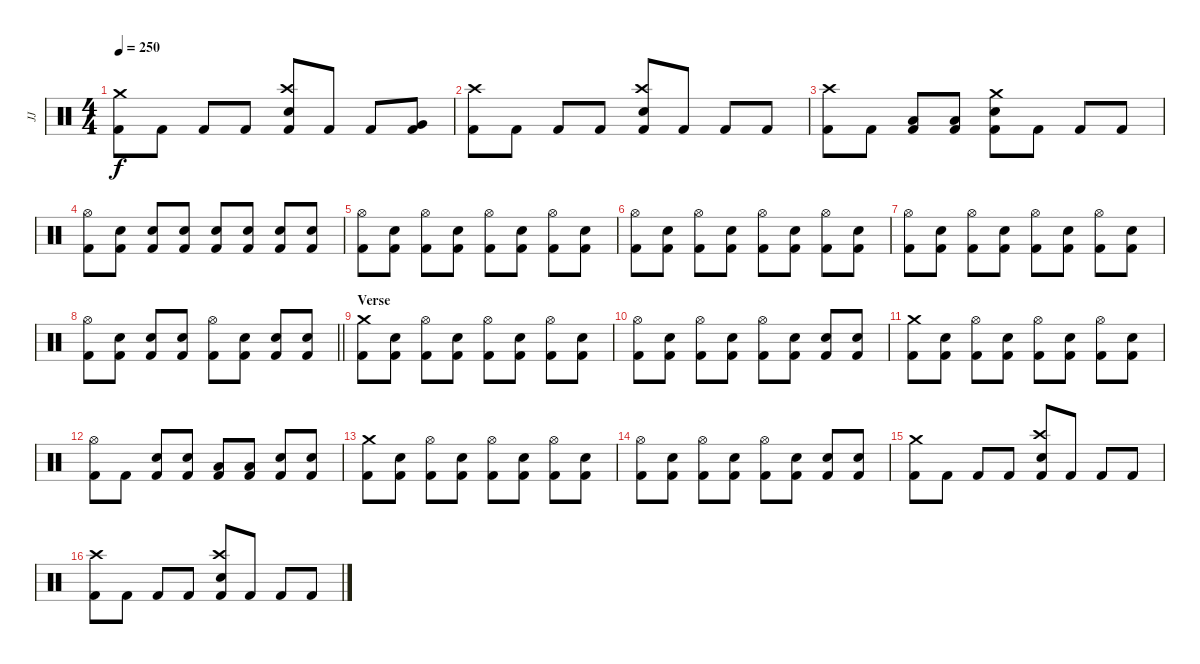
\track ("JJ" "JJ") {instrument percussion}
\staff {score}
\articulation defaults
\ts (4 4)
\tempo 250
\clef neutral
\ks c
("Crash medium (hit)" "Kick (hit) 2").8{dy f} "Kick (hit) 2".8 "Kick (hit) 2".8 "Kick (hit) 2".8 ("Crash high (hit)" "Electric Snare (hit)" "Kick (hit) 2").8 "Kick (hit) 2".8 "Kick (hit) 2".8 ("Very Low Tom (hit)" "Kick (hit) 2").8 |
("Crash high (hit)" "Kick (hit) 2").8 "Kick (hit) 2".8 "Kick (hit) 2".8 "Kick (hit) 2".8 ("Crash high (hit)" "Electric Snare (hit)" "Kick (hit) 2").8 "Kick (hit) 2".8 "Kick (hit) 2".8 "Kick (hit) 2".8 |
("Crash high (hit)" "Kick (hit) 2").8 "Kick (hit) 2".8 ("Low Floor Tom (hit)" "Kick (hit) 2").8 ("Low Floor Tom (hit)" "Kick (hit) 2").8 ("Crash medium (hit)" "Electric Snare (hit)" "Kick (hit) 2").8 "Kick (hit) 2".8 "Kick (hit) 2".8 "Kick (hit) 2".8 |
("Hi-Hat (open)" "Kick (hit) 2").8 ("Electric Snare (hit)" "Kick (hit) 2").8 ("Electric Snare (hit)" "Kick (hit) 2").8 ("Electric Snare (hit)" "Kick (hit) 2").8 ("Electric Snare (hit)" "Kick (hit) 2").8 ("Electric Snare (hit)" "Kick (hit) 2").8 ("Electric Snare (hit)" "Kick (hit) 2").8 ("Electric Snare (hit)" "Kick (hit) 2").8 |
("Hi-Hat (open)" "Kick (hit) 2").8 ("Electric Snare (hit)" "Kick (hit) 2").8 ("Hi-Hat (open)" "Kick (hit) 2").8 ("Electric Snare (hit)" "Kick (hit) 2").8 ("Hi-Hat (open)" "Kick (hit) 2").8 ("Electric Snare (hit)" "Kick (hit) 2").8 ("Hi-Hat (open)" "Kick (hit) 2").8 ("Electric Snare (hit)" "Kick (hit) 2").8 |
("Hi-Hat (open)" "Kick (hit) 2").8 ("Electric Snare (hit)" "Kick (hit) 2").8 ("Hi-Hat (open)" "Kick (hit) 2").8 ("Electric Snare (hit)" "Kick (hit) 2").8 ("Hi-Hat (open)" "Kick (hit) 2").8 ("Electric Snare (hit)" "Kick (hit) 2").8 ("Hi-Hat (open)" "Kick (hit) 2").8 ("Electric Snare (hit)" "Kick (hit) 2").8 |
("Hi-Hat (open)" "Kick (hit) 2").8 ("Electric Snare (hit)" "Kick (hit) 2").8 ("Hi-Hat (open)" "Kick (hit) 2").8 ("Electric Snare (hit)" "Kick (hit) 2").8 ("Hi-Hat (open)" "Kick (hit) 2").8 ("Electric Snare (hit)" "Kick (hit) 2").8 ("Hi-Hat (open)" "Kick (hit) 2").8 ("Electric Snare (hit)" "Kick (hit) 2").8 |
\barLineRight lightlight
("Hi-Hat (open)" "Kick (hit) 2").8 ("Electric Snare (hit)" "Kick (hit) 2").8 ("Electric Snare (hit)" "Kick (hit) 2").8 ("Electric Snare (hit)" "Kick (hit) 2").8 ("Hi-Hat (open)" "Kick (hit) 2").8 ("Electric Snare (hit)" "Kick (hit) 2").8 ("Electric Snare (hit)" "Kick (hit) 2").8 ("Electric Snare (hit)" "Kick (hit) 2").8 |
\section ("" "Verse")
("Crash medium (hit)" "Kick (hit) 2").8 ("Electric Snare (hit)" "Kick (hit) 2").8 ("Hi-Hat (open)" "Kick (hit) 2").8 ("Electric Snare (hit)" "Kick (hit) 2").8 ("Hi-Hat (open)" "Kick (hit) 2").8 ("Electric Snare (hit)" "Kick (hit) 2").8 ("Hi-Hat (open)" "Kick (hit) 2").8 ("Electric Snare (hit)" "Kick (hit) 2").8 |
("Hi-Hat (open)" "Kick (hit) 2").8 ("Electric Snare (hit)" "Kick (hit) 2").8 ("Hi-Hat (open)" "Kick (hit) 2").8 ("Electric Snare (hit)" "Kick (hit) 2").8 ("Hi-Hat (open)" "Kick (hit) 2").8 ("Electric Snare (hit)" "Kick (hit) 2").8 ("Electric Snare (hit)" "Kick (hit) 2").8 ("Electric Snare (hit)" "Kick (hit) 2").8 |
("Crash medium (hit)" "Kick (hit) 2").8 ("Electric Snare (hit)" "Kick (hit) 2").8 ("Hi-Hat (open)" "Kick (hit) 2").8 ("Electric Snare (hit)" "Kick (hit) 2").8 ("Hi-Hat (open)" "Kick (hit) 2").8 ("Electric Snare (hit)" "Kick (hit) 2").8 ("Hi-Hat (open)" "Kick (hit) 2").8 ("Electric Snare (hit)" "Kick (hit) 2").8 |
("Hi-Hat (open)" "Kick (hit) 2").8 "Kick (hit) 2".8 ("Electric Snare (hit)" "Kick (hit) 2").8 ("Electric Snare (hit)" "Kick (hit) 2").8 ("Low Floor Tom (hit)" "Kick (hit) 2").8 ("Low Floor Tom (hit)" "Kick (hit) 2").8 ("Electric Snare (hit)" "Kick (hit) 2").8 ("Electric Snare (hit)" "Kick (hit) 2").8 |
("Crash medium (hit)" "Kick (hit) 2").8 ("Electric Snare (hit)" "Kick (hit) 2").8 ("Hi-Hat (open)" "Kick (hit) 2").8 ("Electric Snare (hit)" "Kick (hit) 2").8 ("Hi-Hat (open)" "Kick (hit) 2").8 ("Electric Snare (hit)" "Kick (hit) 2").8 ("Hi-Hat (open)" "Kick (hit) 2").8 ("Electric Snare (hit)" "Kick (hit) 2").8 |
("Hi-Hat (open)" "Kick (hit) 2").8 ("Electric Snare (hit)" "Kick (hit) 2").8 ("Hi-Hat (open)" "Kick (hit) 2").8 ("Electric Snare (hit)" "Kick (hit) 2").8 ("Hi-Hat (open)" "Kick (hit) 2").8 ("Electric Snare (hit)" "Kick (hit) 2").8 ("Electric Snare (hit)" "Kick (hit) 2").8 ("Electric Snare (hit)" "Kick (hit) 2").8 |
("Crash medium (hit)" "Kick (hit) 2").8 "Kick (hit) 2".8 "Kick (hit) 2".8 "Kick (hit) 2".8 ("Crash high (hit)" "Electric Snare (hit)" "Kick (hit) 2").8 "Kick (hit) 2".8 "Kick (hit) 2".8 "Kick (hit) 2".8 |
("Crash high (hit)" "Kick (hit) 2").8 "Kick (hit) 2".8 "Kick (hit) 2".8 "Kick (hit) 2".8 ("Crash high (hit)" "Electric Snare (hit)" "Kick (hit) 2").8 "Kick (hit) 2".8 "Kick (hit) 2".8 "Kick (hit) 2".8
